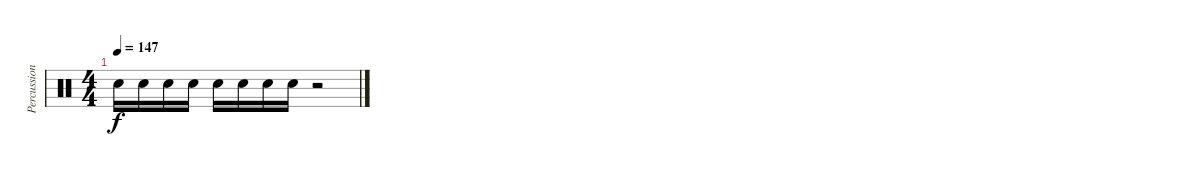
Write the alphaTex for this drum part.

\track ("Percussion" "Percussion") {instrument percussion}
\staff {score}
\articulation defaults
\ts (4 4)
\tempo 147
\clef neutral
\ks aminor "Hand Clap (hit)".16{dy f} "Hand Clap (hit)".16 "Hand Clap (hit)".16 "Hand Clap (hit)".16 "Hand Clap (hit)".16 "Hand Clap (hit)".16 "Hand Clap (hit)".16 "Hand Clap (hit)".16
r.2
